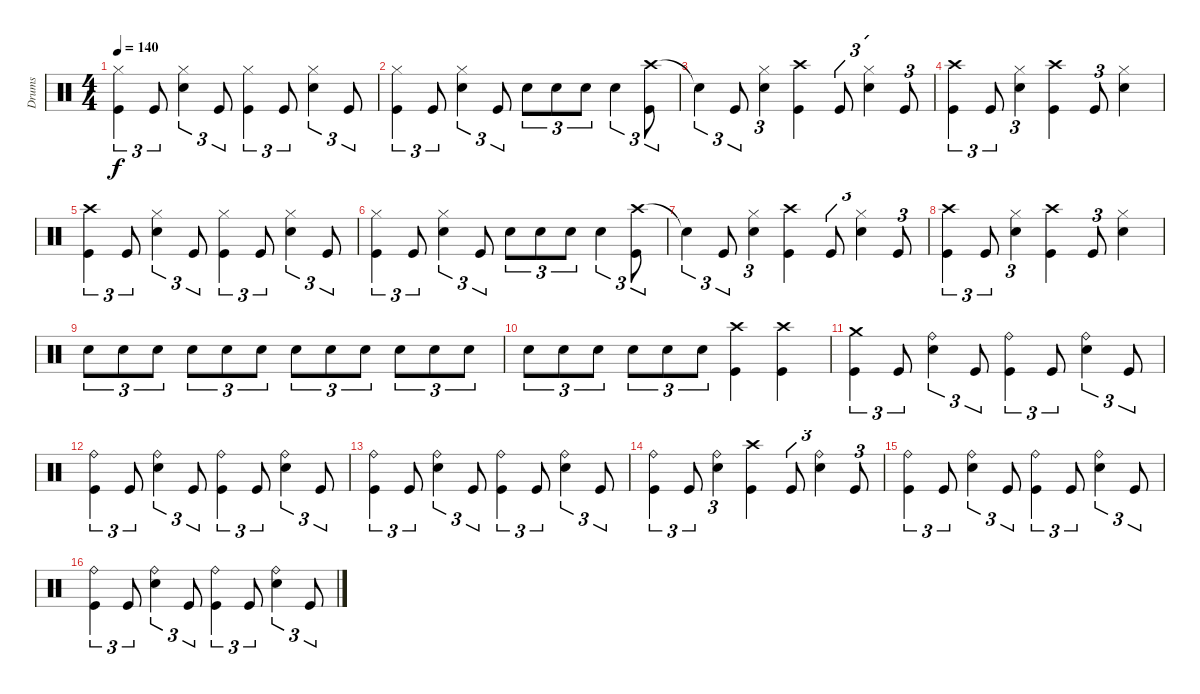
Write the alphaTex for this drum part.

\track ("Drums" "Drums") {instrument percussion}
\staff {score}
\articulation defaults
\ts (4 4)
\tempo 140
\clef neutral
\ks c
("Hi-Hat (closed)" "Kick (hit)").4{tu (3 2) dy f} "Kick (hit)".8{tu (3 2)} ("Hi-Hat (closed)" "Snare (hit) 2").4{tu (3 2)} "Kick (hit)".8{tu (3 2)} ("Hi-Hat (closed)" "Kick (hit)").4{tu (3 2)} "Kick (hit)".8{tu (3 2)} ("Hi-Hat (closed)" "Snare (hit) 2").4{tu (3 2)} "Kick (hit)".8{tu (3 2)} |
("Hi-Hat (closed)" "Kick (hit)").4{tu (3 2)} "Kick (hit)".8{tu (3 2)} ("Hi-Hat (closed)" "Snare (hit) 2").4{tu (3 2)} "Kick (hit)".8{tu (3 2)} "Snare (hit) 2".8{tu (3 2)} "Snare (hit) 2".8{tu (3 2)} "Snare (hit) 2".8{tu (3 2)} "Snare (hit) 2".4{tu (3 2)} ("Crash high (hit)" "Kick (hit)").8{tu (3 2)} |
"Snare (hit)"{t}.4{tu (3 2)} "Kick (hit)".8{tu (3 2)} ("Hi-Hat (closed)" "Snare (hit) 2").4{tu (3 2)} ("Crash high (hit)" "Kick (hit)").4 "Kick (hit)".8{tu (3 2)} ("Hi-Hat (closed)" "Snare (hit) 2").4{tu (3 2)} "Kick (hit)".8{tu (3 2)} |
("Crash high (hit)" "Kick (hit)").4{tu (3 2)} "Kick (hit)".8{tu (3 2)} ("Hi-Hat (closed)" "Snare (hit) 2").4{tu (3 2)} ("Crash high (hit)" "Kick (hit)").4 "Kick (hit)".8{tu (3 2)} ("Hi-Hat (closed)" "Snare (hit) 2").4 |
("Crash high (hit)" "Kick (hit)").4{tu (3 2)} "Kick (hit)".8{tu (3 2)} ("Hi-Hat (closed)" "Snare (hit) 2").4{tu (3 2)} "Kick (hit)".8{tu (3 2)} ("Hi-Hat (closed)" "Kick (hit)").4{tu (3 2)} "Kick (hit)".8{tu (3 2)} ("Hi-Hat (closed)" "Snare (hit) 2").4{tu (3 2)} "Kick (hit)".8{tu (3 2)} |
("Hi-Hat (closed)" "Kick (hit)").4{tu (3 2)} "Kick (hit)".8{tu (3 2)} ("Hi-Hat (closed)" "Snare (hit) 2").4{tu (3 2)} "Kick (hit)".8{tu (3 2)} "Snare (hit) 2".8{tu (3 2)} "Snare (hit) 2".8{tu (3 2)} "Snare (hit) 2".8{tu (3 2)} "Snare (hit) 2".4{tu (3 2)} ("Crash high (hit)" "Kick (hit)").8{tu (3 2)} |
"Snare (hit)"{t}.4{tu (3 2)} "Kick (hit)".8{tu (3 2)} ("Hi-Hat (closed)" "Snare (hit) 2").4{tu (3 2)} ("Crash high (hit)" "Kick (hit)").4 "Kick (hit)".8{tu (3 2)} ("Hi-Hat (closed)" "Snare (hit) 2").4{tu (3 2)} "Kick (hit)".8{tu (3 2)} |
("Crash high (hit)" "Kick (hit)").4{tu (3 2)} "Kick (hit)".8{tu (3 2)} ("Hi-Hat (closed)" "Snare (hit) 2").4{tu (3 2)} ("Crash high (hit)" "Kick (hit)").4 "Kick (hit)".8{tu (3 2)} ("Hi-Hat (closed)" "Snare (hit) 2").4 |
"Snare (hit) 2".8{tu (3 2)} "Snare (hit) 2".8{tu (3 2)} "Snare (hit) 2".8{tu (3 2)} "Snare (hit) 2".8{tu (3 2)} "Snare (hit) 2".8{tu (3 2)} "Snare (hit) 2".8{tu (3 2)} "Snare (hit) 2".8{tu (3 2)} "Snare (hit) 2".8{tu (3 2)} "Snare (hit) 2".8{tu (3 2)} "Snare (hit) 2".8{tu (3 2)} "Snare (hit) 2".8{tu (3 2)} "Snare (hit) 2".8{tu (3 2)} |
"Snare (hit) 2".8{tu (3 2)} "Snare (hit) 2".8{tu (3 2)} "Snare (hit) 2".8{tu (3 2)} "Snare (hit) 2".8{tu (3 2)} "Snare (hit) 2".8{tu (3 2)} "Snare (hit) 2".8{tu (3 2)} ("Crash high (hit)" "Kick (hit)").4 ("Crash high (hit)" "Kick (hit)").4 |
("Crash medium (hit)" "Kick (hit)").4{tu (3 2)} "Kick (hit)".8{tu (3 2)} ("Ride (bell)" "Snare (hit) 2").4{tu (3 2)} "Kick (hit)".8{tu (3 2)} ("Ride (bell)" "Kick (hit)").4{tu (3 2)} "Kick (hit)".8{tu (3 2)} ("Ride (bell)" "Snare (hit) 2").4{tu (3 2)} "Kick (hit)".8{tu (3 2)} |
("Ride (bell)" "Kick (hit)").4{tu (3 2)} "Kick (hit)".8{tu (3 2)} ("Ride (bell)" "Snare (hit) 2").4{tu (3 2)} "Kick (hit)".8{tu (3 2)} ("Ride (bell)" "Kick (hit)").4{tu (3 2)} "Kick (hit)".8{tu (3 2)} ("Ride (bell)" "Snare (hit) 2").4{tu (3 2)} "Kick (hit)".8{tu (3 2)} |
("Ride (bell)" "Kick (hit)").4{tu (3 2)} "Kick (hit)".8{tu (3 2)} ("Ride (bell)" "Snare (hit) 2").4{tu (3 2)} "Kick (hit)".8{tu (3 2)} ("Ride (bell)" "Kick (hit)").4{tu (3 2)} "Kick (hit)".8{tu (3 2)} ("Ride (bell)" "Snare (hit) 2").4{tu (3 2)} "Kick (hit)".8{tu (3 2)} |
("Ride (bell)" "Kick (hit)").4{tu (3 2)} "Kick (hit)".8{tu (3 2)} ("Ride (bell)" "Snare (hit) 2").4{tu (3 2)} ("Crash high (hit)" "Kick (hit)").4 "Kick (hit)".8{tu (3 2)} ("Ride (bell)" "Snare (hit) 2").4{tu (3 2)} "Kick (hit)".8{tu (3 2)} |
("Ride (bell)" "Kick (hit)").4{tu (3 2)} "Kick (hit)".8{tu (3 2)} ("Ride (bell)" "Snare (hit) 2").4{tu (3 2)} "Kick (hit)".8{tu (3 2)} ("Ride (bell)" "Kick (hit)").4{tu (3 2)} "Kick (hit)".8{tu (3 2)} ("Ride (bell)" "Snare (hit) 2").4{tu (3 2)} "Kick (hit)".8{tu (3 2)} |
("Ride (bell)" "Kick (hit)").4{tu (3 2)} "Kick (hit)".8{tu (3 2)} ("Ride (bell)" "Snare (hit) 2").4{tu (3 2)} "Kick (hit)".8{tu (3 2)} ("Ride (bell)" "Kick (hit)").4{tu (3 2)} "Kick (hit)".8{tu (3 2)} ("Ride (bell)" "Snare (hit) 2").4{tu (3 2)} "Kick (hit)".8{tu (3 2)}
